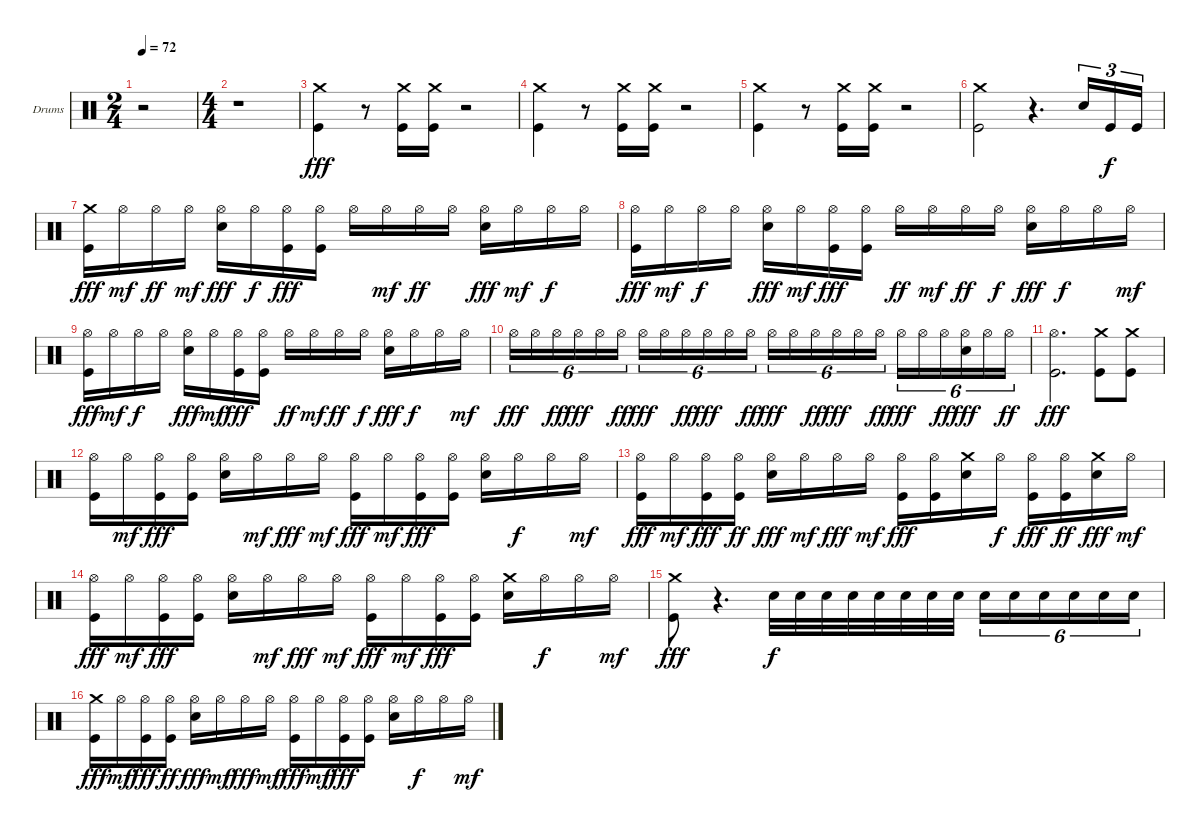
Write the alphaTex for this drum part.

\bracketExtendMode groupsimilarinstruments
\firstSystemTrackNameOrientation horizontal
\otherSystemsTrackNameOrientation horizontal
\track ("Drumkit" "Drums") {instrument percussion}
\staff {score}
\articulation defaults
\ts (2 4)
\tempo 72
\clef neutral
\ks c
r.2{dy fff} |
\ts (4 4)
r.1 |
("Kick (hit)" "Crash medium (hit)").4 r.8 ("Kick (hit)" "Crash medium (hit)").16 ("Kick (hit)" "Crash medium (hit)").16 r.2 |
("Kick (hit)" "Crash medium (hit)").4 r.8 ("Kick (hit)" "Crash medium (hit)").16 ("Kick (hit)" "Crash medium (hit)").16 r.2 |
("Kick (hit)" "Crash medium (hit)").4 r.8 ("Kick (hit)" "Crash medium (hit)").16 ("Kick (hit)" "Crash medium (hit)").16 r.2 |
("Kick (hit)" "Crash medium (hit)").2 r.4{d} "Snare (hit) 2".16{tu (3 2)} "Kick (hit)".16{tu (3 2) dy f} "Kick (hit)".16{tu (3 2)} |
("Kick (hit)" "Crash medium (hit)").16{dy fff} "Hi-Hat (open)".16{dy mf} "Hi-Hat (open)".16{dy ff} "Hi-Hat (open)".16{dy mf} ("Snare (hit) 2" "Hi-Hat (open)").16{dy fff} "Hi-Hat (open)".16{dy f} ("Kick (hit)" "Hi-Hat (open)").16{dy fff} ("Kick (hit)" "Hi-Hat (open)").16 "Hi-Hat (open)".16 "Hi-Hat (open)".16{dy mf} "Hi-Hat (open)".16{dy ff} "Hi-Hat (open)".16 ("Snare (hit) 2" "Hi-Hat (open)").16{dy fff} "Hi-Hat (open)".16{dy mf} "Hi-Hat (open)".16{dy f} "Hi-Hat (open)".16 |
("Kick (hit)" "Hi-Hat (open)").16{dy fff} "Hi-Hat (open)".16{dy mf} "Hi-Hat (open)".16{dy f} "Hi-Hat (open)".16 ("Snare (hit) 2" "Hi-Hat (open)").16{dy fff} "Hi-Hat (open)".16{dy mf} ("Kick (hit)" "Hi-Hat (open)").16{dy fff} ("Kick (hit)" "Hi-Hat (open)").16 "Hi-Hat (open)".16{dy ff} "Hi-Hat (open)".16{dy mf} "Hi-Hat (open)".16{dy ff} "Hi-Hat (open)".16{dy f} ("Snare (hit) 2" "Hi-Hat (open)").16{dy fff} "Hi-Hat (open)".16{dy f} "Hi-Hat (open)".16 "Hi-Hat (open)".16{dy mf} |
("Kick (hit)" "Hi-Hat (open)").16{dy fff} "Hi-Hat (open)".16{dy mf} "Hi-Hat (open)".16{dy f} "Hi-Hat (open)".16 ("Snare (hit) 2" "Hi-Hat (open)").16{dy fff} "Hi-Hat (open)".16{dy mf} ("Kick (hit)" "Hi-Hat (open)").16{dy fff} ("Kick (hit)" "Hi-Hat (open)").16 "Hi-Hat (open)".16{dy ff} "Hi-Hat (open)".16{dy mf} "Hi-Hat (open)".16{dy ff} "Hi-Hat (open)".16{dy f} ("Snare (hit) 2" "Hi-Hat (open)").16{dy fff} "Hi-Hat (open)".16{dy f} "Hi-Hat (open)".16 "Hi-Hat (open)".16{dy mf} |
"Hi-Hat (open)".16{tu (6 4) dy fff} "Hi-Hat (open)".16{tu (6 4)} "Hi-Hat (open)".16{tu (6 4) dy ff} "Hi-Hat (open)".16{tu (6 4) dy fff} "Hi-Hat (open)".16{tu (6 4)} "Hi-Hat (open)".16{tu (6 4) dy ff} "Hi-Hat (open)".16{tu (6 4) dy fff} "Hi-Hat (open)".16{tu (6 4)} "Hi-Hat (open)".16{tu (6 4) dy ff} "Hi-Hat (open)".16{tu (6 4) dy fff} "Hi-Hat (open)".16{tu (6 4)} "Hi-Hat (open)".16{tu (6 4) dy ff} "Hi-Hat (open)".16{tu (6 4) dy fff} "Hi-Hat (open)".16{tu (6 4)} "Hi-Hat (open)".16{tu (6 4) dy ff} "Hi-Hat (open)".16{tu (6 4) dy fff} "Hi-Hat (open)".16{tu (6 4)} "Hi-Hat (open)".16{tu (6 4) dy ff} "Hi-Hat (open)".16{tu (6 4) dy fff} "Hi-Hat (open)".16{tu (6 4)} "Hi-Hat (open)".16{tu (6 4) dy ff} ("Hi-Hat (open)" "Snare (hit) 2").16{tu (6 4) dy fff} "Hi-Hat (open)".16{tu (6 4)} "Hi-Hat (open)".16{tu (6 4) dy ff} |
("Hi-Hat (open)" "Kick (hit)").2{d dy fff} ("Kick (hit)" "Crash medium (hit)").8 ("Kick (hit)" "Crash medium (hit)").8 |
("Kick (hit)" "Hi-Hat (open)").16 "Hi-Hat (open)".16{dy mf} ("Kick (hit)" "Hi-Hat (open)").16{dy fff} ("Kick (hit)" "Hi-Hat (open)").16 ("Snare (hit) 2" "Hi-Hat (open)").16 "Hi-Hat (open)".16{dy mf} "Hi-Hat (open)".16{dy fff} "Hi-Hat (open)".16{dy mf} ("Kick (hit)" "Hi-Hat (open)").16{dy fff} "Hi-Hat (open)".16{dy mf} ("Kick (hit)" "Hi-Hat (open)").16{dy fff} ("Kick (hit)" "Hi-Hat (open)").16 ("Snare (hit) 2" "Hi-Hat (open)").16 "Hi-Hat (open)".16{dy f} "Hi-Hat (open)".16 "Hi-Hat (open)".16{dy mf} |
("Kick (hit)" "Hi-Hat (open)").16{dy fff} "Hi-Hat (open)".16{dy mf} ("Kick (hit)" "Hi-Hat (open)").16{dy fff} ("Kick (hit)" "Hi-Hat (open)").16{dy ff} ("Snare (hit) 2" "Hi-Hat (open)").16{dy fff} "Hi-Hat (open)".16{dy mf} "Hi-Hat (open)".16{dy fff} "Hi-Hat (open)".16{dy mf} ("Kick (hit)" "Hi-Hat (open)").16{dy fff} ("Kick (hit)" "Hi-Hat (open)").16 ("Snare (hit) 2" "Crash medium (hit)").16 "Hi-Hat (open)".16{dy f} ("Kick (hit)" "Hi-Hat (open)").16{dy fff} ("Kick (hit)" "Hi-Hat (open)").16{dy ff} ("Snare (hit) 2" "Crash medium (hit)").16{dy fff} "Hi-Hat (open)".16{dy mf} |
("Kick (hit)" "Hi-Hat (open)").16{dy fff} "Hi-Hat (open)".16{dy mf} ("Kick (hit)" "Hi-Hat (open)").16{dy fff} ("Kick (hit)" "Hi-Hat (open)").16 ("Snare (hit) 2" "Hi-Hat (open)").16 "Hi-Hat (open)".16{dy mf} "Hi-Hat (open)".16{dy fff} "Hi-Hat (open)".16{dy mf} ("Kick (hit)" "Hi-Hat (open)").16{dy fff} "Hi-Hat (open)".16{dy mf} ("Kick (hit)" "Hi-Hat (open)").16{dy fff} ("Kick (hit)" "Hi-Hat (open)").16 ("Snare (hit) 2" "Crash medium (hit)").16 "Hi-Hat (open)".16{dy f} "Hi-Hat (open)".16 "Hi-Hat (open)".16{dy mf} |
("Kick (hit)" "Crash medium (hit)").8{dy fff} r.4{d} "Snare (hit) 2".32{dy f} "Snare (hit) 2".32 "Snare (hit) 2".32 "Snare (hit) 2".32 "Snare (hit) 2".32 "Snare (hit) 2".32 "Snare (hit) 2".32 "Snare (hit) 2".32 "Snare (hit) 2".16{tu (6 4)} "Snare (hit) 2".16{tu (6 4)} "Snare (hit) 2".16{tu (6 4)} "Snare (hit) 2".16{tu (6 4)} "Snare (hit) 2".16{tu (6 4)} "Snare (hit) 2".16{tu (6 4)} |
("Kick (hit)" "Crash medium (hit)").16{dy fff} "Hi-Hat (open)".16{dy mf} ("Kick (hit)" "Hi-Hat (open)").16{dy fff} ("Kick (hit)" "Hi-Hat (open)").16{dy ff} ("Snare (hit) 2" "Hi-Hat (open)").16{dy fff} "Hi-Hat (open)".16{dy mf} "Hi-Hat (open)".16{dy fff} "Hi-Hat (open)".16{dy mf} ("Kick (hit)" "Hi-Hat (open)").16{dy fff} "Hi-Hat (open)".16{dy mf} ("Kick (hit)" "Hi-Hat (open)").16{dy fff} ("Kick (hit)" "Hi-Hat (open)").16 ("Snare (hit) 2" "Hi-Hat (open)").16 "Hi-Hat (open)".16{dy f} "Hi-Hat (open)".16 "Hi-Hat (open)".16{dy mf}
